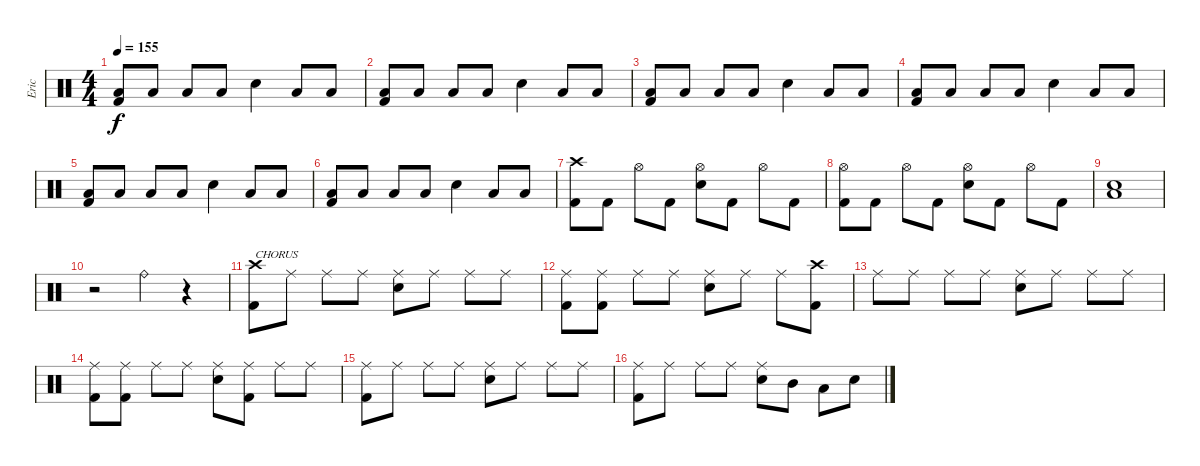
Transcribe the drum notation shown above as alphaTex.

\track ("Eric" "Eric") {instrument percussion}
\staff {score}
\articulation defaults
\ts (4 4)
\tempo 155
\clef neutral
\ks c
("Low Floor Tom (hit)" "Kick (hit) 2").8{dy f} "Low Floor Tom (hit)".8 "Low Floor Tom (hit)".8 "Low Floor Tom (hit)".8 "Electric Snare (hit)".4 "Low Floor Tom (hit)".8 "Low Floor Tom (hit)".8 |
("Low Floor Tom (hit)" "Kick (hit) 2").8 "Low Floor Tom (hit)".8 "Low Floor Tom (hit)".8 "Low Floor Tom (hit)".8 "Electric Snare (hit)".4 "Low Floor Tom (hit)".8 "Low Floor Tom (hit)".8 |
("Low Floor Tom (hit)" "Kick (hit) 2").8 "Low Floor Tom (hit)".8 "Low Floor Tom (hit)".8 "Low Floor Tom (hit)".8 "Electric Snare (hit)".4 "Low Floor Tom (hit)".8 "Low Floor Tom (hit)".8 |
("Low Floor Tom (hit)" "Kick (hit) 2").8 "Low Floor Tom (hit)".8 "Low Floor Tom (hit)".8 "Low Floor Tom (hit)".8 "Electric Snare (hit)".4 "Low Floor Tom (hit)".8 "Low Floor Tom (hit)".8 |
("Low Floor Tom (hit)" "Kick (hit) 2").8 "Low Floor Tom (hit)".8 "Low Floor Tom (hit)".8 "Low Floor Tom (hit)".8 "Electric Snare (hit)".4 "Low Floor Tom (hit)".8 "Low Floor Tom (hit)".8 |
("Low Floor Tom (hit)" "Kick (hit) 2").8 "Low Floor Tom (hit)".8 "Low Floor Tom (hit)".8 "Low Floor Tom (hit)".8 "Electric Snare (hit)".4 "Low Floor Tom (hit)".8 "Low Floor Tom (hit)".8 |
("Crash high (hit)" "Kick (hit) 2").8 "Kick (hit) 2".8 "Hi-Hat (open)".8 "Kick (hit) 2".8 ("Hi-Hat (open)" "Electric Snare (hit)").8 "Kick (hit) 2".8 "Hi-Hat (open)".8 "Kick (hit) 2".8 |
("Hi-Hat (open)" "Kick (hit) 2").8 "Kick (hit) 2".8 "Hi-Hat (open)".8 "Kick (hit) 2".8 ("Hi-Hat (open)" "Electric Snare (hit)").8 "Kick (hit) 2".8 "Hi-Hat (open)".8 "Kick (hit) 2".8 |
("Low Floor Tom (hit)" "Electric Snare (hit)").1 |
r.2 "Ride (bell)".4 r.4 |
("Crash high (hit)" "Kick (hit) 2").8{txt "CHORUS"} "Ride (middle)".8 "Ride (middle)".8 "Ride (middle)".8 ("Ride (middle)" "Electric Snare (hit)").8 "Ride (middle)".8 "Ride (middle)".8 "Ride (middle)".8 |
("Ride (middle)" "Kick (hit) 2").8 ("Ride (middle)" "Kick (hit) 2").8 "Ride (middle)".8 "Ride (middle)".8 ("Ride (middle)" "Electric Snare (hit)").8 "Ride (middle)".8 "Ride (middle)".8 ("Crash high (hit)" "Kick (hit) 2").8 |
"Ride (middle)".8 "Ride (middle)".8 "Ride (middle)".8 "Ride (middle)".8 ("Ride (middle)" "Electric Snare (hit)").8 "Ride (middle)".8 "Ride (middle)".8 "Ride (middle)".8 |
("Ride (middle)" "Kick (hit) 2").8 ("Ride (middle)" "Kick (hit) 2").8 "Ride (middle)".8 "Ride (middle)".8 ("Ride (middle)" "Electric Snare (hit)").8 ("Ride (middle)" "Kick (hit) 2").8 "Ride (middle)".8 "Ride (middle)".8 |
("Ride (middle)" "Kick (hit) 2").8 "Ride (middle)".8 "Ride (middle)".8 "Ride (middle)".8 ("Ride (middle)" "Electric Snare (hit)").8 "Ride (middle)".8 "Ride (middle)".8 "Ride (middle)".8 |
("Ride (middle)" "Kick (hit) 2").8 "Ride (middle)".8 "Ride (middle)".8 "Ride (middle)".8 ("Ride (middle)" "Electric Snare (hit)").8 "Mid Tom (hit)".8 "Low Tom (hit)".8 "Electric Snare (hit)".8
